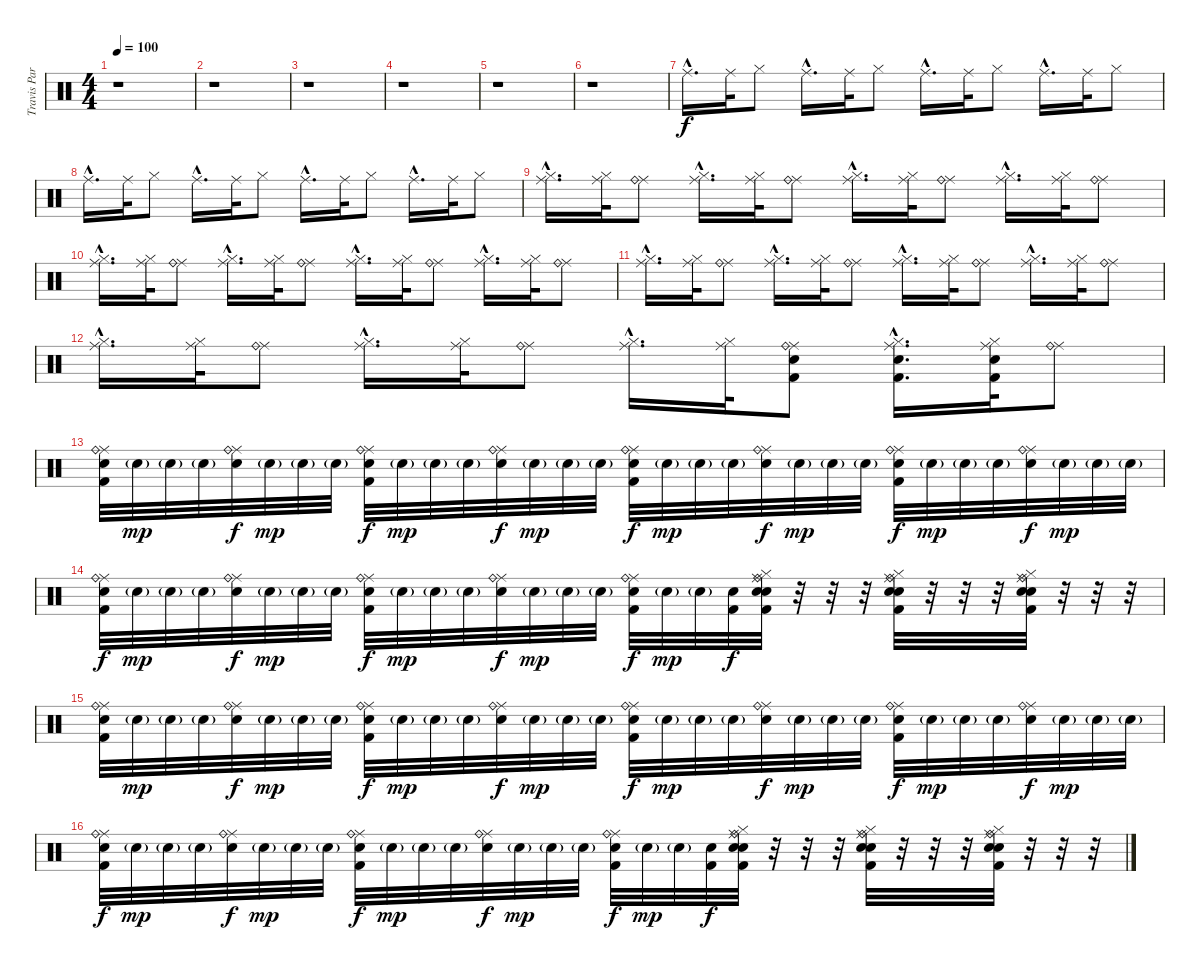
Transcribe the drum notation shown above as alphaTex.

\track ("Travis Parker(batterie)" "Travis Par") {instrument percussion}
\staff {score}
\articulation defaults
\ts (4 4)
\tempo 100
\clef neutral
\ks c
r.1{dy f} |
r.1 |
r.1 |
r.1 |
r.1 |
r.1 |
"Ride (middle)"{hac}.16{d} "Ride (middle)".32 "Hi-Hat (closed)".8 "Ride (middle)"{hac}.16{d} "Ride (middle)".32 "Hi-Hat (closed)".8 "Ride (middle)"{hac}.16{d} "Ride (middle)".32 "Hi-Hat (closed)".8 "Ride (middle)"{hac}.16{d} "Ride (middle)".32 "Hi-Hat (closed)".8 |
"Ride (middle)"{hac}.16{d} "Ride (middle)".32 "Hi-Hat (closed)".8 "Ride (middle)"{hac}.16{d} "Ride (middle)".32 "Hi-Hat (closed)".8 "Ride (middle)"{hac}.16{d} "Ride (middle)".32 "Hi-Hat (closed)".8 "Ride (middle)"{hac}.16{d} "Ride (middle)".32 "Hi-Hat (closed)".8 |
("Ride (middle)"{hac} "Hi-Hat (closed)"{hac}).16{d} ("Ride (middle)" "Hi-Hat (closed)").32 ("Ride (middle)" "Ride (bell)").8 ("Ride (middle)"{hac} "Hi-Hat (closed)"{hac}).16{d} ("Ride (middle)" "Hi-Hat (closed)").32 ("Ride (middle)" "Ride (bell)").8 ("Ride (middle)"{hac} "Hi-Hat (closed)"{hac}).16{d} ("Ride (middle)" "Hi-Hat (closed)").32 ("Ride (middle)" "Ride (bell)").8 ("Ride (middle)"{hac} "Hi-Hat (closed)"{hac}).16{d} ("Ride (middle)" "Hi-Hat (closed)").32 ("Ride (middle)" "Ride (bell)").8 |
("Ride (middle)"{hac} "Hi-Hat (closed)"{hac}).16{d} ("Ride (middle)" "Hi-Hat (closed)").32 ("Ride (middle)" "Ride (bell)").8 ("Ride (middle)"{hac} "Hi-Hat (closed)"{hac}).16{d} ("Ride (middle)" "Hi-Hat (closed)").32 ("Ride (middle)" "Ride (bell)").8 ("Ride (middle)"{hac} "Hi-Hat (closed)"{hac}).16{d} ("Ride (middle)" "Hi-Hat (closed)").32 ("Ride (middle)" "Ride (bell)").8 ("Ride (middle)"{hac} "Hi-Hat (closed)"{hac}).16{d} ("Ride (middle)" "Hi-Hat (closed)").32 ("Ride (middle)" "Ride (bell)").8 |
("Ride (middle)"{hac} "Hi-Hat (closed)"{hac}).16{d} ("Ride (middle)" "Hi-Hat (closed)").32 ("Ride (middle)" "Ride (bell)").8 ("Ride (middle)"{hac} "Hi-Hat (closed)"{hac}).16{d} ("Ride (middle)" "Hi-Hat (closed)").32 ("Ride (middle)" "Ride (bell)").8 ("Ride (middle)"{hac} "Hi-Hat (closed)"{hac}).16{d} ("Ride (middle)" "Hi-Hat (closed)").32 ("Ride (middle)" "Ride (bell)").8 ("Ride (middle)"{hac} "Hi-Hat (closed)"{hac}).16{d} ("Ride (middle)" "Hi-Hat (closed)").32 ("Ride (middle)" "Ride (bell)").8 |
("Ride (middle)"{hac} "Hi-Hat (closed)"{hac}).16{d} ("Ride (middle)" "Hi-Hat (closed)").32 ("Ride (middle)" "Ride (bell)").8 ("Ride (middle)"{hac} "Hi-Hat (closed)"{hac}).16{d} ("Ride (middle)" "Hi-Hat (closed)").32 ("Ride (middle)" "Ride (bell)").8 ("Ride (middle)"{hac} "Hi-Hat (closed)"{hac}).16{d} ("Ride (middle)" "Hi-Hat (closed)").32 ("Ride (middle)" "Ride (bell)" "Electric Snare (hit)" "Kick (hit) 2").8 ("Ride (middle)"{hac} "Hi-Hat (closed)"{hac} "Electric Snare (hit)"{hac} "Kick (hit) 2"{hac}).16{d} ("Ride (middle)" "Hi-Hat (closed)" "Electric Snare (hit)" "Kick (hit) 2").32 ("Ride (middle)" "Ride (bell)").8 |
("Ride (middle)" "Ride (bell)" "Electric Snare (hit)" "Kick (hit) 2").32 "Electric Snare (hit)"{g}.32{dy mp} "Electric Snare (hit)"{g}.32 "Electric Snare (hit)"{g}.32 ("Ride (middle)" "Ride (bell)" "Electric Snare (hit)").32{dy f} "Electric Snare (hit)"{g}.32{dy mp} "Electric Snare (hit)"{g}.32 "Electric Snare (hit)"{g}.32 ("Ride (middle)" "Ride (bell)" "Electric Snare (hit)" "Kick (hit) 2").32{dy f} "Electric Snare (hit)"{g}.32{dy mp} "Electric Snare (hit)"{g}.32 "Electric Snare (hit)"{g}.32 ("Ride (middle)" "Ride (bell)" "Electric Snare (hit)").32{dy f} "Electric Snare (hit)"{g}.32{dy mp} "Electric Snare (hit)"{g}.32 "Electric Snare (hit)"{g}.32 ("Ride (middle)" "Ride (bell)" "Electric Snare (hit)" "Kick (hit) 2").32{dy f} "Electric Snare (hit)"{g}.32{dy mp} "Electric Snare (hit)"{g}.32 "Electric Snare (hit)"{g}.32 ("Ride (middle)" "Ride (bell)" "Electric Snare (hit)").32{dy f} "Electric Snare (hit)"{g}.32{dy mp} "Electric Snare (hit)"{g}.32 "Electric Snare (hit)"{g}.32 ("Ride (middle)" "Ride (bell)" "Electric Snare (hit)" "Kick (hit) 2").32{dy f} "Electric Snare (hit)"{g}.32{dy mp} "Electric Snare (hit)"{g}.32 "Electric Snare (hit)"{g}.32 ("Ride (middle)" "Ride (bell)" "Electric Snare (hit)").32{dy f} "Electric Snare (hit)"{g}.32{dy mp} "Electric Snare (hit)"{g}.32 "Electric Snare (hit)"{g}.32 |
("Ride (middle)" "Ride (bell)" "Electric Snare (hit)" "Kick (hit) 2").32{dy f} "Electric Snare (hit)"{g}.32{dy mp} "Electric Snare (hit)"{g}.32 "Electric Snare (hit)"{g}.32 ("Ride (middle)" "Ride (bell)" "Electric Snare (hit)").32{dy f} "Electric Snare (hit)"{g}.32{dy mp} "Electric Snare (hit)"{g}.32 "Electric Snare (hit)"{g}.32 ("Ride (middle)" "Ride (bell)" "Electric Snare (hit)" "Kick (hit) 2").32{dy f} "Electric Snare (hit)"{g}.32{dy mp} "Electric Snare (hit)"{g}.32 "Electric Snare (hit)"{g}.32 ("Ride (middle)" "Ride (bell)" "Electric Snare (hit)").32{dy f} "Electric Snare (hit)"{g}.32{dy mp} "Electric Snare (hit)"{g}.32 "Electric Snare (hit)"{g}.32 ("Ride (middle)" "Ride (bell)" "Electric Snare (hit)" "Kick (hit) 2").32{dy f} "Electric Snare (hit)"{g}.32{dy mp} "Electric Snare (hit)"{g}.32 ("Snare (hit) 2" "Kick (hit) 2").32{dy f} ("Ride (middle)" "Ride (bell)" "Hi-Hat (closed)" "Electric Snare (hit)" "Snare (hit) 2" "Kick (hit) 2").32 r.32 r.32 r.32 ("Ride (middle)" "Ride (bell)" "Hi-Hat (closed)" "Electric Snare (hit)" "Snare (hit) 2" "Kick (hit) 2").32 r.32 r.32 r.32 ("Ride (middle)" "Ride (bell)" "Hi-Hat (closed)" "Electric Snare (hit)" "Snare (hit) 2" "Kick (hit) 2").32 r.32 r.32 r.32 |
("Ride (middle)" "Ride (bell)" "Electric Snare (hit)" "Kick (hit) 2").32 "Electric Snare (hit)"{g}.32{dy mp} "Electric Snare (hit)"{g}.32 "Electric Snare (hit)"{g}.32 ("Ride (middle)" "Ride (bell)" "Electric Snare (hit)").32{dy f} "Electric Snare (hit)"{g}.32{dy mp} "Electric Snare (hit)"{g}.32 "Electric Snare (hit)"{g}.32 ("Ride (middle)" "Ride (bell)" "Electric Snare (hit)" "Kick (hit) 2").32{dy f} "Electric Snare (hit)"{g}.32{dy mp} "Electric Snare (hit)"{g}.32 "Electric Snare (hit)"{g}.32 ("Ride (middle)" "Ride (bell)" "Electric Snare (hit)").32{dy f} "Electric Snare (hit)"{g}.32{dy mp} "Electric Snare (hit)"{g}.32 "Electric Snare (hit)"{g}.32 ("Ride (middle)" "Ride (bell)" "Electric Snare (hit)" "Kick (hit) 2").32{dy f} "Electric Snare (hit)"{g}.32{dy mp} "Electric Snare (hit)"{g}.32 "Electric Snare (hit)"{g}.32 ("Ride (middle)" "Ride (bell)" "Electric Snare (hit)").32{dy f} "Electric Snare (hit)"{g}.32{dy mp} "Electric Snare (hit)"{g}.32 "Electric Snare (hit)"{g}.32 ("Ride (middle)" "Ride (bell)" "Electric Snare (hit)" "Kick (hit) 2").32{dy f} "Electric Snare (hit)"{g}.32{dy mp} "Electric Snare (hit)"{g}.32 "Electric Snare (hit)"{g}.32 ("Ride (middle)" "Ride (bell)" "Electric Snare (hit)").32{dy f} "Electric Snare (hit)"{g}.32{dy mp} "Electric Snare (hit)"{g}.32 "Electric Snare (hit)"{g}.32 |
("Ride (middle)" "Ride (bell)" "Electric Snare (hit)" "Kick (hit) 2").32{dy f} "Electric Snare (hit)"{g}.32{dy mp} "Electric Snare (hit)"{g}.32 "Electric Snare (hit)"{g}.32 ("Ride (middle)" "Ride (bell)" "Electric Snare (hit)").32{dy f} "Electric Snare (hit)"{g}.32{dy mp} "Electric Snare (hit)"{g}.32 "Electric Snare (hit)"{g}.32 ("Ride (middle)" "Ride (bell)" "Electric Snare (hit)" "Kick (hit) 2").32{dy f} "Electric Snare (hit)"{g}.32{dy mp} "Electric Snare (hit)"{g}.32 "Electric Snare (hit)"{g}.32 ("Ride (middle)" "Ride (bell)" "Electric Snare (hit)").32{dy f} "Electric Snare (hit)"{g}.32{dy mp} "Electric Snare (hit)"{g}.32 "Electric Snare (hit)"{g}.32 ("Ride (middle)" "Ride (bell)" "Electric Snare (hit)" "Kick (hit) 2").32{dy f} "Electric Snare (hit)"{g}.32{dy mp} "Electric Snare (hit)"{g}.32 ("Snare (hit) 2" "Kick (hit) 2").32{dy f} ("Ride (middle)" "Ride (bell)" "Hi-Hat (closed)" "Electric Snare (hit)" "Snare (hit) 2" "Kick (hit) 2").32 r.32 r.32 r.32 ("Ride (middle)" "Ride (bell)" "Hi-Hat (closed)" "Electric Snare (hit)" "Snare (hit) 2" "Kick (hit) 2").32 r.32 r.32 r.32 ("Ride (middle)" "Ride (bell)" "Hi-Hat (closed)" "Electric Snare (hit)" "Snare (hit) 2" "Kick (hit) 2").32 r.32 r.32 r.32
